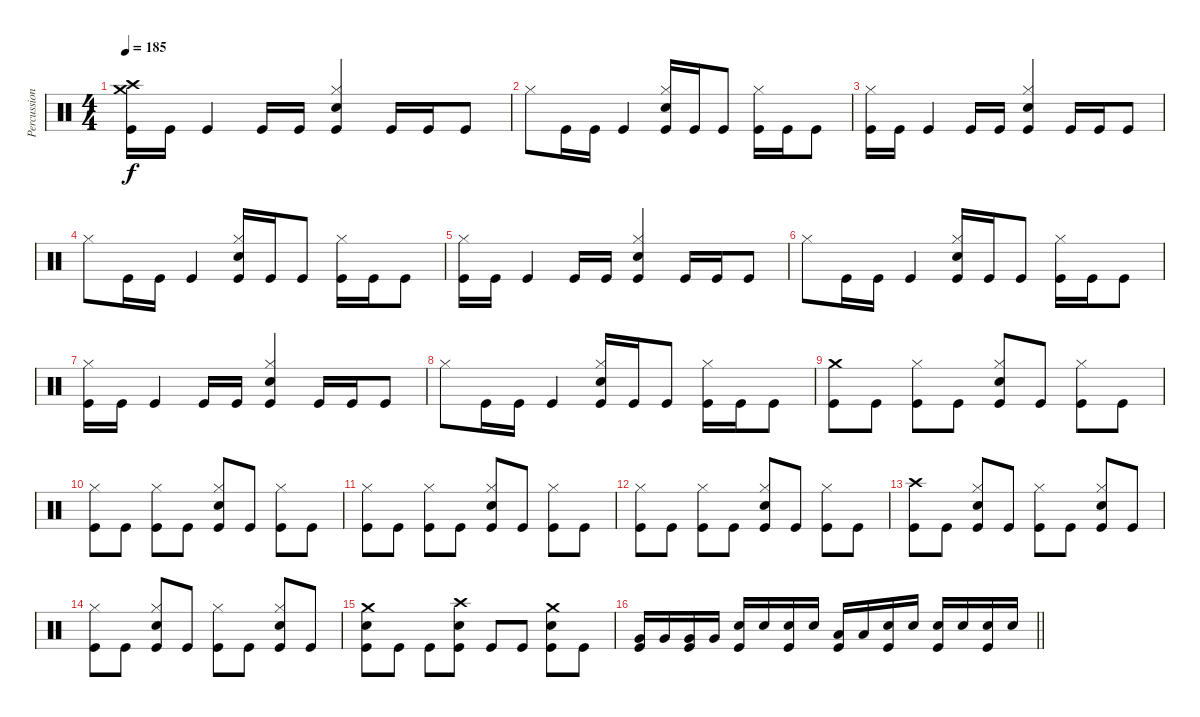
\track ("Percussion" "Percussion") {instrument percussion}
\staff {score}
\articulation defaults
\ts (4 4)
\tempo 185
\clef neutral
\ks c
("Crash high (hit)" "Crash medium (hit)" "Kick (hit)").16{dy f} "Kick (hit)".16 "Kick (hit)".4 "Kick (hit)".16 "Kick (hit)".16 ("Hi-Hat (closed)" "Electric Snare (hit)" "Kick (hit)").4 "Kick (hit)".16 "Kick (hit)".16 "Kick (hit)".8 |
"Hi-Hat (closed)".8 "Kick (hit)".16 "Kick (hit)".16 "Kick (hit)".4 ("Hi-Hat (closed)" "Electric Snare (hit)" "Kick (hit)").16 "Kick (hit)".16 "Kick (hit)".8 ("Hi-Hat (closed)" "Kick (hit)").16 "Kick (hit)".16 "Kick (hit)".8 |
("Hi-Hat (closed)" "Kick (hit)").16 "Kick (hit)".16 "Kick (hit)".4 "Kick (hit)".16 "Kick (hit)".16 ("Hi-Hat (closed)" "Electric Snare (hit)" "Kick (hit)").4 "Kick (hit)".16 "Kick (hit)".16 "Kick (hit)".8 |
"Hi-Hat (closed)".8 "Kick (hit)".16 "Kick (hit)".16 "Kick (hit)".4 ("Hi-Hat (closed)" "Electric Snare (hit)" "Kick (hit)").16 "Kick (hit)".16 "Kick (hit)".8 ("Hi-Hat (closed)" "Kick (hit)").16 "Kick (hit)".16 "Kick (hit)".8 |
("Hi-Hat (closed)" "Kick (hit)").16 "Kick (hit)".16 "Kick (hit)".4 "Kick (hit)".16 "Kick (hit)".16 ("Hi-Hat (closed)" "Electric Snare (hit)" "Kick (hit)").4 "Kick (hit)".16 "Kick (hit)".16 "Kick (hit)".8 |
"Hi-Hat (closed)".8 "Kick (hit)".16 "Kick (hit)".16 "Kick (hit)".4 ("Hi-Hat (closed)" "Electric Snare (hit)" "Kick (hit)").16 "Kick (hit)".16 "Kick (hit)".8 ("Hi-Hat (closed)" "Kick (hit)").16 "Kick (hit)".16 "Kick (hit)".8 |
("Hi-Hat (closed)" "Kick (hit)").16 "Kick (hit)".16 "Kick (hit)".4 "Kick (hit)".16 "Kick (hit)".16 ("Hi-Hat (closed)" "Electric Snare (hit)" "Kick (hit)").4 "Kick (hit)".16 "Kick (hit)".16 "Kick (hit)".8 |
"Hi-Hat (closed)".8 "Kick (hit)".16 "Kick (hit)".16 "Kick (hit)".4 ("Hi-Hat (closed)" "Electric Snare (hit)" "Kick (hit)").16 "Kick (hit)".16 "Kick (hit)".8 ("Hi-Hat (closed)" "Kick (hit)").16 "Kick (hit)".16 "Kick (hit)".8 |
("Crash medium (hit)" "Kick (hit)").8 "Kick (hit)".8 ("Hi-Hat (closed)" "Kick (hit)").8 "Kick (hit)".8 ("Hi-Hat (closed)" "Electric Snare (hit)" "Kick (hit)").8 "Kick (hit)".8 ("Hi-Hat (closed)" "Kick (hit)").8 "Kick (hit)".8 |
("Hi-Hat (closed)" "Kick (hit)").8 "Kick (hit)".8 ("Hi-Hat (closed)" "Kick (hit)").8 "Kick (hit)".8 ("Hi-Hat (closed)" "Electric Snare (hit)" "Kick (hit)").8 "Kick (hit)".8 ("Hi-Hat (closed)" "Kick (hit)").8 "Kick (hit)".8 |
("Hi-Hat (closed)" "Kick (hit)").8 "Kick (hit)".8 ("Hi-Hat (closed)" "Kick (hit)").8 "Kick (hit)".8 ("Hi-Hat (closed)" "Electric Snare (hit)" "Kick (hit)").8 "Kick (hit)".8 ("Hi-Hat (closed)" "Kick (hit)").8 "Kick (hit)".8 |
("Hi-Hat (closed)" "Kick (hit)").8 "Kick (hit)".8 ("Hi-Hat (closed)" "Kick (hit)").8 "Kick (hit)".8 ("Hi-Hat (closed)" "Electric Snare (hit)" "Kick (hit)").8 "Kick (hit)".8 ("Hi-Hat (closed)" "Kick (hit)").8 "Kick (hit)".8 |
("Crash high (hit)" "Kick (hit)").8 "Kick (hit)".8 ("Hi-Hat (closed)" "Electric Snare (hit)" "Kick (hit)").8 "Kick (hit)".8 ("Hi-Hat (closed)" "Kick (hit)").8 "Kick (hit)".8 ("Hi-Hat (closed)" "Electric Snare (hit)" "Kick (hit)").8 "Kick (hit)".8 |
("Hi-Hat (closed)" "Kick (hit)").8 "Kick (hit)".8 ("Hi-Hat (closed)" "Electric Snare (hit)" "Kick (hit)").8 "Kick (hit)".8 ("Hi-Hat (closed)" "Kick (hit)").8 "Kick (hit)".8 ("Hi-Hat (closed)" "Electric Snare (hit)" "Kick (hit)").8 "Kick (hit)".8 |
("Crash medium (hit)" "Electric Snare (hit)" "Kick (hit)").8 "Kick (hit)".8 "Kick (hit)".8 ("Crash high (hit)" "Electric Snare (hit)" "Kick (hit)").8 "Kick (hit)".8 "Kick (hit)".8 ("Crash medium (hit)" "Electric Snare (hit)" "Kick (hit)").8 "Kick (hit)".8 |
\barLineRight lightlight
("Very Low Tom (hit)" "Kick (hit)").16 "Very Low Tom (hit)".16 ("Very Low Tom (hit)" "Kick (hit)").16 "Very Low Tom (hit)".16 ("Electric Snare (hit)" "Kick (hit)").16 "Electric Snare (hit)".16 ("Electric Snare (hit)" "Kick (hit)").16 "Electric Snare (hit)".16 ("Low Tom (hit)" "Kick (hit)").16 "Low Tom (hit)".16 ("Electric Snare (hit)" "Kick (hit)").16 "Electric Snare (hit)".16 ("Electric Snare (hit)" "Kick (hit)").16 "Electric Snare (hit)".16 ("Electric Snare (hit)" "Kick (hit)").16 "Electric Snare (hit)".16
